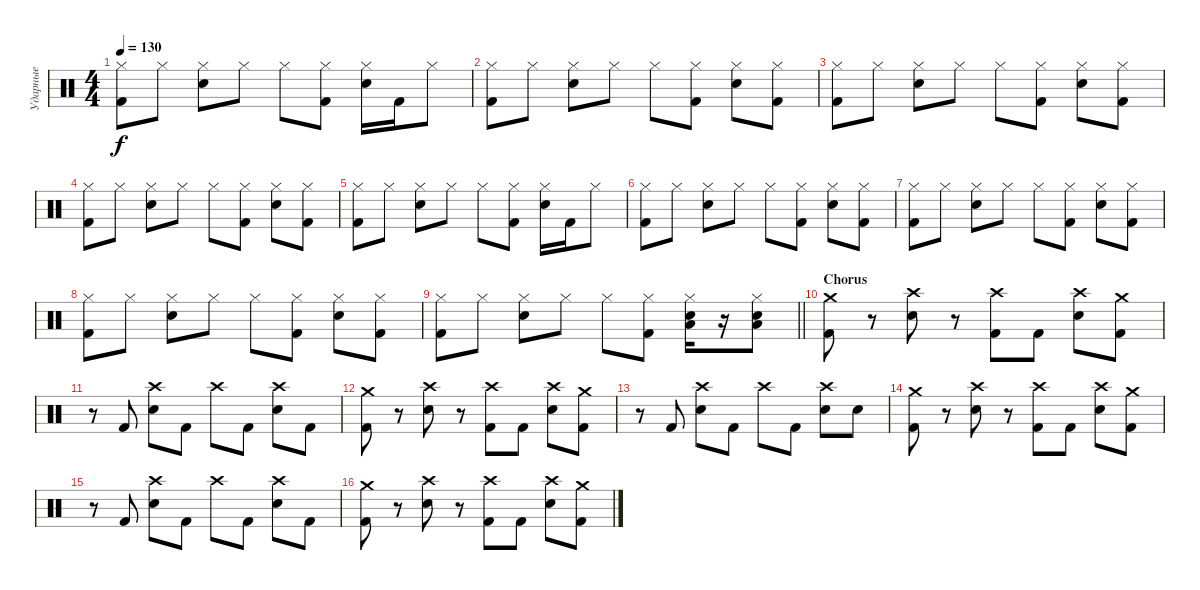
\track ("Ударные" "Ударные") {instrument percussion}
\staff {score}
\articulation defaults
\ts (4 4)
\tempo 130
\clef neutral
\ks c
("Hi-Hat (closed)" "Kick (hit) 2").8{dy f} "Hi-Hat (closed)".8 ("Hi-Hat (closed)" "Snare (hit) 2").8 "Hi-Hat (closed)".8 "Hi-Hat (closed)".8 ("Hi-Hat (closed)" "Kick (hit) 2").8 ("Hi-Hat (closed)" "Snare (hit) 2").16 "Kick (hit) 2".16 "Hi-Hat (closed)".8 |
("Hi-Hat (closed)" "Kick (hit) 2").8 "Hi-Hat (closed)".8 ("Hi-Hat (closed)" "Snare (hit) 2").8 "Hi-Hat (closed)".8 "Hi-Hat (closed)".8 ("Hi-Hat (closed)" "Kick (hit) 2").8 ("Hi-Hat (closed)" "Snare (hit) 2").8 ("Hi-Hat (closed)" "Kick (hit) 2").8 |
("Hi-Hat (closed)" "Kick (hit) 2").8 "Hi-Hat (closed)".8 ("Hi-Hat (closed)" "Snare (hit) 2").8 "Hi-Hat (closed)".8 "Hi-Hat (closed)".8 ("Hi-Hat (closed)" "Kick (hit) 2").8 ("Hi-Hat (closed)" "Snare (hit) 2").8 ("Hi-Hat (closed)" "Kick (hit) 2").8 |
("Hi-Hat (closed)" "Kick (hit) 2").8 "Hi-Hat (closed)".8 ("Hi-Hat (closed)" "Snare (hit) 2").8 "Hi-Hat (closed)".8 "Hi-Hat (closed)".8 ("Hi-Hat (closed)" "Kick (hit) 2").8 ("Hi-Hat (closed)" "Snare (hit) 2").8 ("Hi-Hat (closed)" "Kick (hit) 2").8 |
("Hi-Hat (closed)" "Kick (hit) 2").8 "Hi-Hat (closed)".8 ("Hi-Hat (closed)" "Snare (hit) 2").8 "Hi-Hat (closed)".8 "Hi-Hat (closed)".8 ("Hi-Hat (closed)" "Kick (hit) 2").8 ("Hi-Hat (closed)" "Snare (hit) 2").16 "Kick (hit) 2".16 "Hi-Hat (closed)".8 |
("Hi-Hat (closed)" "Kick (hit) 2").8 "Hi-Hat (closed)".8 ("Hi-Hat (closed)" "Snare (hit) 2").8 "Hi-Hat (closed)".8 "Hi-Hat (closed)".8 ("Hi-Hat (closed)" "Kick (hit) 2").8 ("Hi-Hat (closed)" "Snare (hit) 2").8 ("Hi-Hat (closed)" "Kick (hit) 2").8 |
("Hi-Hat (closed)" "Kick (hit) 2").8 "Hi-Hat (closed)".8 ("Hi-Hat (closed)" "Snare (hit) 2").8 "Hi-Hat (closed)".8 "Hi-Hat (closed)".8 ("Hi-Hat (closed)" "Kick (hit) 2").8 ("Hi-Hat (closed)" "Snare (hit) 2").8 ("Hi-Hat (closed)" "Kick (hit) 2").8 |
("Hi-Hat (closed)" "Kick (hit) 2").8 "Hi-Hat (closed)".8 ("Hi-Hat (closed)" "Snare (hit) 2").8 "Hi-Hat (closed)".8 "Hi-Hat (closed)".8 ("Hi-Hat (closed)" "Kick (hit) 2").8 ("Hi-Hat (closed)" "Snare (hit) 2").8 ("Hi-Hat (closed)" "Kick (hit) 2").8 |
\barLineRight lightlight
("Hi-Hat (closed)" "Kick (hit) 2").8 "Hi-Hat (closed)".8 ("Hi-Hat (closed)" "Snare (hit) 2").8 "Hi-Hat (closed)".8 "Hi-Hat (closed)".8 ("Hi-Hat (closed)" "Kick (hit) 2").8 ("Hi-Hat (closed)" "Low Tom (hit)" "Snare (hit) 2").16 r.16 ("Hi-Hat (closed)" "Snare (hit) 2" "Low Tom (hit)").8 |
\section ("" "Chorus")
("Crash medium (hit)" "Kick (hit) 2").8 r.8 ("Crash high (hit)" "Snare (hit) 2").8 r.8 ("Crash high (hit)" "Kick (hit) 2").8 "Kick (hit) 2".8 ("Crash high (hit)" "Snare (hit) 2").8 ("Crash medium (hit)" "Kick (hit) 2").8 |
r.8 "Kick (hit) 2".8 ("Crash high (hit)" "Snare (hit) 2").8 "Kick (hit) 2".8 "Crash high (hit)".8 "Kick (hit) 2".8 ("Crash high (hit)" "Snare (hit) 2").8 "Kick (hit) 2".8 |
("Crash medium (hit)" "Kick (hit) 2").8 r.8 ("Crash high (hit)" "Snare (hit) 2").8 r.8 ("Crash high (hit)" "Kick (hit) 2").8 "Kick (hit) 2".8 ("Crash high (hit)" "Snare (hit) 2").8 ("Crash medium (hit)" "Kick (hit) 2").8 |
r.8 "Kick (hit) 2".8 ("Crash high (hit)" "Snare (hit) 2").8 "Kick (hit) 2".8 "Crash high (hit)".8 "Kick (hit) 2".8 ("Crash high (hit)" "Snare (hit) 2").8 "Snare (hit) 2".8 |
("Crash medium (hit)" "Kick (hit) 2").8 r.8 ("Crash high (hit)" "Snare (hit) 2").8 r.8 ("Crash high (hit)" "Kick (hit) 2").8 "Kick (hit) 2".8 ("Crash high (hit)" "Snare (hit) 2").8 ("Crash medium (hit)" "Kick (hit) 2").8 |
r.8 "Kick (hit) 2".8 ("Crash high (hit)" "Snare (hit) 2").8 "Kick (hit) 2".8 "Crash high (hit)".8 "Kick (hit) 2".8 ("Crash high (hit)" "Snare (hit) 2").8 "Kick (hit) 2".8 |
("Crash medium (hit)" "Kick (hit) 2").8 r.8 ("Crash high (hit)" "Snare (hit) 2").8 r.8 ("Crash high (hit)" "Kick (hit) 2").8 "Kick (hit) 2".8 ("Crash high (hit)" "Snare (hit) 2").8 ("Crash medium (hit)" "Kick (hit) 2").8
